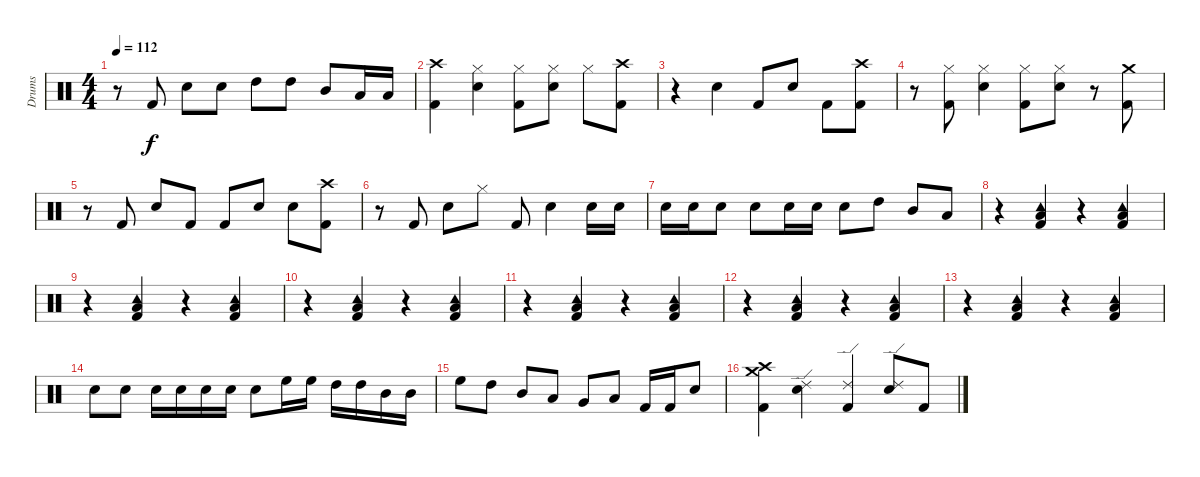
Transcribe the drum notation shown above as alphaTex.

\track ("Drums" "Drums") {instrument percussion}
\staff {score}
\articulation defaults
\ts (4 4)
\tempo 112
\clef neutral
\ks c
r.8{dy f} "Kick (hit) 2".8 "Electric Snare (hit)".8 "Electric Snare (hit)".8 "High Tom (hit)".8 "High Tom (hit)".8 "Mid Tom (hit)".8 "Low Tom (hit)".16 "Low Tom (hit)".16 |
("Crash high (hit)" "Kick (hit) 2").4 ("Hi-Hat (closed)" "Electric Snare (hit)").4 ("Hi-Hat (closed)" "Kick (hit) 2").8 ("Hi-Hat (closed)" "Electric Snare (hit)").8 "Hi-Hat (closed)".8 ("Crash high (hit)" "Kick (hit) 2").8 |
r.4 "Electric Snare (hit)".4 "Kick (hit) 2".8 "Electric Snare (hit)".8 "Kick (hit) 2".8 ("Crash high (hit)" "Kick (hit) 2").8 |
r.8 ("Hi-Hat (closed)" "Kick (hit) 2").8 ("Hi-Hat (closed)" "Electric Snare (hit)").4 ("Hi-Hat (closed)" "Kick (hit) 2").8 ("Hi-Hat (closed)" "Electric Snare (hit)").8 r.8 ("Crash medium (hit)" "Kick (hit) 2").8 |
r.8 "Kick (hit) 2".8 "Electric Snare (hit)".8 "Kick (hit) 2".8 "Kick (hit) 2".8 "Electric Snare (hit)".8 "Electric Snare (hit)".8 ("Crash high (hit)" "Kick (hit) 2").8 |
r.8 "Kick (hit) 2".8 "Electric Snare (hit)".8 "Hi-Hat (closed)".8 "Kick (hit) 2".8 "Electric Snare (hit)".4 "Electric Snare (hit)".16 "Electric Snare (hit)".16 |
"Electric Snare (hit)".16 "Electric Snare (hit)".16 "Electric Snare (hit)".8 "Electric Snare (hit)".8 "Electric Snare (hit)".16 "Electric Snare (hit)".16 "Electric Snare (hit)".8 "High Tom (hit)".8 "Mid Tom (hit)".8 "Low Tom (hit)".8 |
r.4 ("Low Floor Tom (hit)" "Tambourine (hit)" "Kick (hit) 2").4 r.4 ("Low Floor Tom (hit)" "Tambourine (hit)" "Kick (hit) 2").4 |
r.4 ("Low Floor Tom (hit)" "Tambourine (hit)" "Kick (hit) 2").4 r.4 ("Low Floor Tom (hit)" "Tambourine (hit)" "Kick (hit) 2").4 |
r.4 ("Low Floor Tom (hit)" "Tambourine (hit)" "Kick (hit) 2").4 r.4 ("Low Floor Tom (hit)" "Tambourine (hit)" "Kick (hit) 2").4 |
r.4 ("Low Floor Tom (hit)" "Tambourine (hit)" "Kick (hit) 2").4 r.4 ("Low Floor Tom (hit)" "Tambourine (hit)" "Kick (hit) 2").4 |
r.4 ("Low Floor Tom (hit)" "Tambourine (hit)" "Kick (hit) 2").4 r.4 ("Low Floor Tom (hit)" "Tambourine (hit)" "Kick (hit) 2").4 |
r.4 ("Low Floor Tom (hit)" "Tambourine (hit)" "Kick (hit) 2").4 r.4 ("Low Floor Tom (hit)" "Tambourine (hit)" "Kick (hit) 2").4 |
"Electric Snare (hit)".8 "Electric Snare (hit)".8 "Electric Snare (hit)".16 "Electric Snare (hit)".16 "Electric Snare (hit)".16 "Electric Snare (hit)".16 "Electric Snare (hit)".8 "High Floor Tom (hit)".16 "High Floor Tom (hit)".16 "High Tom (hit)".16 "High Tom (hit)".16 "Mid Tom (hit)".16 "Mid Tom (hit)".16 |
"High Floor Tom (hit)".8 "High Tom (hit)".8 "Mid Tom (hit)".8 "Low Tom (hit)".8 "Very Low Tom (hit)".8 "Low Floor Tom (hit)".8 "Kick (hit) 2".16 "Kick (hit) 2".16 "Electric Snare (hit)".8 |
("Crash medium (hit)" "Crash high (hit)" "Kick (hit) 2").4 ("Ride (edge) 2" "Electric Snare (hit)").4 ("Ride (edge) 2" "Kick (hit) 2").4 ("Ride (edge) 2" "Electric Snare (hit)").8 "Kick (hit) 2".8
